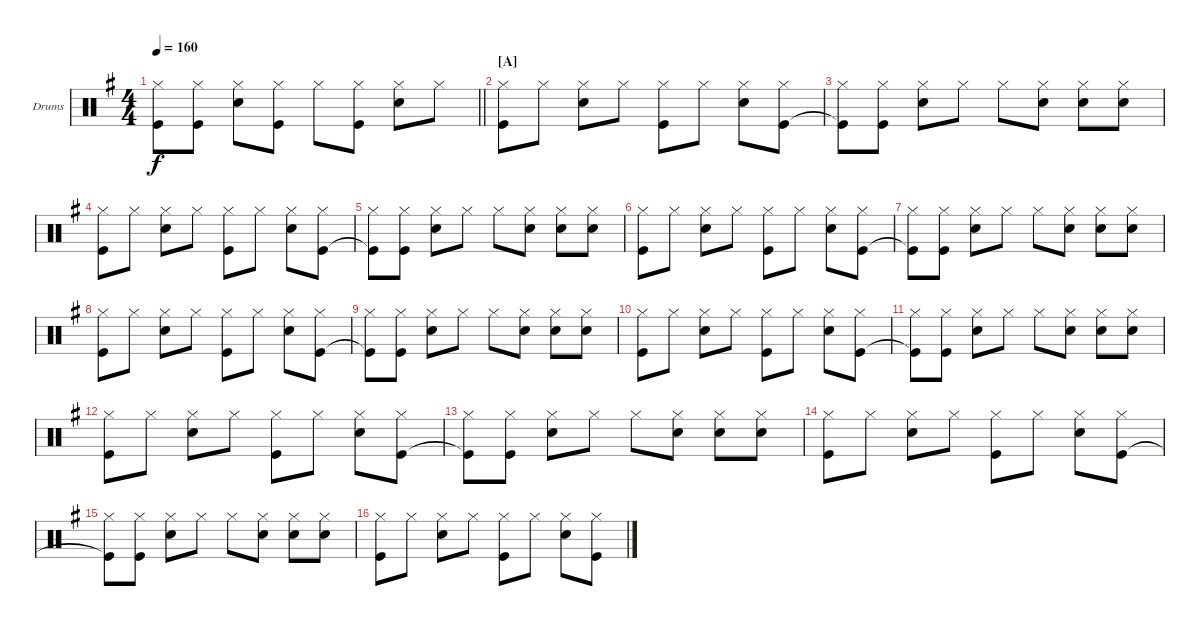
\bracketExtendMode groupsimilarinstruments
\firstSystemTrackNameOrientation horizontal
\otherSystemsTrackNameOrientation horizontal
\track ("Fabrizio Moretti" "Drums") {instrument percussion}
\staff {score}
\articulation defaults
\ts (4 4)
\tempo 160
\clef neutral
\barLineRight lightlight
\ks g
("Hi-Hat (closed)" "Kick (hit)").8{dy f} ("Hi-Hat (closed)" "Kick (hit)").8 ("Hi-Hat (closed)" "Snare (hit) 2").8 ("Hi-Hat (closed)" "Kick (hit)").8 "Hi-Hat (closed)".8 ("Hi-Hat (closed)" "Kick (hit)").8 ("Hi-Hat (closed)" "Snare (hit) 2").8 "Hi-Hat (closed)".8 |
\section ("A" "")
("Hi-Hat (closed)" "Kick (hit)").8 "Hi-Hat (closed)".8 ("Hi-Hat (closed)" "Snare (hit) 2").8 "Hi-Hat (closed)".8 ("Hi-Hat (closed)" "Kick (hit)").8 "Hi-Hat (closed)".8 ("Hi-Hat (closed)" "Snare (hit) 2").8 ("Hi-Hat (closed)" "Kick (hit)").8 |
("Hi-Hat (closed)" "Kick (hit)"{t}).8 ("Hi-Hat (closed)" "Kick (hit)").8 ("Hi-Hat (closed)" "Snare (hit) 2").8 "Hi-Hat (closed)".8 "Hi-Hat (closed)".8 ("Hi-Hat (closed)" "Snare (hit) 2").8 ("Hi-Hat (closed)" "Snare (hit) 2").8 ("Hi-Hat (closed)" "Snare (hit) 2").8 |
("Hi-Hat (closed)" "Kick (hit)").8 "Hi-Hat (closed)".8 ("Hi-Hat (closed)" "Snare (hit) 2").8 "Hi-Hat (closed)".8 ("Hi-Hat (closed)" "Kick (hit)").8 "Hi-Hat (closed)".8 ("Hi-Hat (closed)" "Snare (hit) 2").8 ("Hi-Hat (closed)" "Kick (hit)").8 |
("Hi-Hat (closed)" "Kick (hit)"{t}).8 ("Hi-Hat (closed)" "Kick (hit)").8 ("Hi-Hat (closed)" "Snare (hit) 2").8 "Hi-Hat (closed)".8 "Hi-Hat (closed)".8 ("Hi-Hat (closed)" "Snare (hit) 2").8 ("Hi-Hat (closed)" "Snare (hit) 2").8 ("Hi-Hat (closed)" "Snare (hit) 2").8 |
("Hi-Hat (closed)" "Kick (hit)").8 "Hi-Hat (closed)".8 ("Hi-Hat (closed)" "Snare (hit) 2").8 "Hi-Hat (closed)".8 ("Hi-Hat (closed)" "Kick (hit)").8 "Hi-Hat (closed)".8 ("Hi-Hat (closed)" "Snare (hit) 2").8 ("Hi-Hat (closed)" "Kick (hit)").8 |
("Hi-Hat (closed)" "Kick (hit)"{t}).8 ("Hi-Hat (closed)" "Kick (hit)").8 ("Hi-Hat (closed)" "Snare (hit) 2").8 "Hi-Hat (closed)".8 "Hi-Hat (closed)".8 ("Hi-Hat (closed)" "Snare (hit) 2").8 ("Hi-Hat (closed)" "Snare (hit) 2").8 ("Hi-Hat (closed)" "Snare (hit) 2").8 |
("Hi-Hat (closed)" "Kick (hit)").8 "Hi-Hat (closed)".8 ("Hi-Hat (closed)" "Snare (hit) 2").8 "Hi-Hat (closed)".8 ("Hi-Hat (closed)" "Kick (hit)").8 "Hi-Hat (closed)".8 ("Hi-Hat (closed)" "Snare (hit) 2").8 ("Hi-Hat (closed)" "Kick (hit)").8 |
("Hi-Hat (closed)" "Kick (hit)"{t}).8 ("Hi-Hat (closed)" "Kick (hit)").8 ("Hi-Hat (closed)" "Snare (hit) 2").8 "Hi-Hat (closed)".8 "Hi-Hat (closed)".8 ("Hi-Hat (closed)" "Snare (hit) 2").8 ("Hi-Hat (closed)" "Snare (hit) 2").8 ("Hi-Hat (closed)" "Snare (hit) 2").8 |
("Hi-Hat (closed)" "Kick (hit)").8 "Hi-Hat (closed)".8 ("Hi-Hat (closed)" "Snare (hit) 2").8 "Hi-Hat (closed)".8 ("Hi-Hat (closed)" "Kick (hit)").8 "Hi-Hat (closed)".8 ("Hi-Hat (closed)" "Snare (hit) 2").8 ("Hi-Hat (closed)" "Kick (hit)").8 |
("Hi-Hat (closed)" "Kick (hit)"{t}).8 ("Hi-Hat (closed)" "Kick (hit)").8 ("Hi-Hat (closed)" "Snare (hit) 2").8 "Hi-Hat (closed)".8 "Hi-Hat (closed)".8 ("Hi-Hat (closed)" "Snare (hit) 2").8 ("Hi-Hat (closed)" "Snare (hit) 2").8 ("Hi-Hat (closed)" "Snare (hit) 2").8 |
("Hi-Hat (closed)" "Kick (hit)").8 "Hi-Hat (closed)".8 ("Hi-Hat (closed)" "Snare (hit) 2").8 "Hi-Hat (closed)".8 ("Hi-Hat (closed)" "Kick (hit)").8 "Hi-Hat (closed)".8 ("Hi-Hat (closed)" "Snare (hit) 2").8 ("Hi-Hat (closed)" "Kick (hit)").8 |
("Hi-Hat (closed)" "Kick (hit)"{t}).8 ("Hi-Hat (closed)" "Kick (hit)").8 ("Hi-Hat (closed)" "Snare (hit) 2").8 "Hi-Hat (closed)".8 "Hi-Hat (closed)".8 ("Hi-Hat (closed)" "Snare (hit) 2").8 ("Hi-Hat (closed)" "Snare (hit) 2").8 ("Hi-Hat (closed)" "Snare (hit) 2").8 |
("Hi-Hat (closed)" "Kick (hit)").8 "Hi-Hat (closed)".8 ("Hi-Hat (closed)" "Snare (hit) 2").8 "Hi-Hat (closed)".8 ("Hi-Hat (closed)" "Kick (hit)").8 "Hi-Hat (closed)".8 ("Hi-Hat (closed)" "Snare (hit) 2").8 ("Hi-Hat (closed)" "Kick (hit)").8 |
("Hi-Hat (closed)" "Kick (hit)"{t}).8 ("Hi-Hat (closed)" "Kick (hit)").8 ("Hi-Hat (closed)" "Snare (hit) 2").8 "Hi-Hat (closed)".8 "Hi-Hat (closed)".8 ("Hi-Hat (closed)" "Snare (hit) 2").8 ("Hi-Hat (closed)" "Snare (hit) 2").8 ("Hi-Hat (closed)" "Snare (hit) 2").8 |
("Hi-Hat (closed)" "Kick (hit)").8 "Hi-Hat (closed)".8 ("Hi-Hat (closed)" "Snare (hit) 2").8 "Hi-Hat (closed)".8 ("Hi-Hat (closed)" "Kick (hit)").8 "Hi-Hat (closed)".8 ("Hi-Hat (closed)" "Snare (hit) 2").8 ("Hi-Hat (closed)" "Kick (hit)").8
